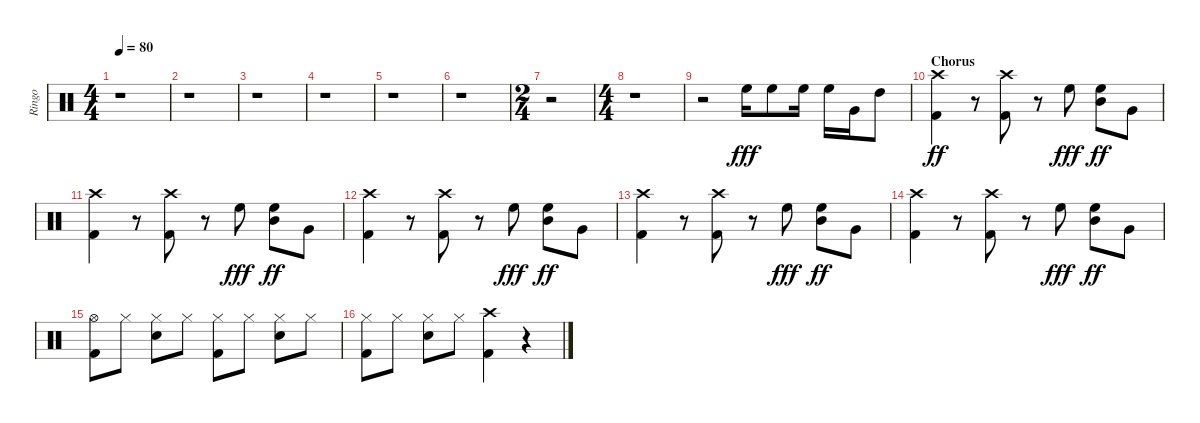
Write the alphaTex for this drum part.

\track ("Ringo" "Ringo") {instrument percussion}
\staff {score}
\articulation defaults
\ts (4 4)
\tempo 80
\clef neutral
\ks c
r.1{dy f} |
r.1 |
r.1 |
r.1 |
r.1 |
r.1 |
\ts (2 4)
r.2 |
\ts (4 4)
r.1 |
r.2 "High Floor Tom (hit)".16{dy fff volume 16 balance 14} "High Floor Tom (hit)".8 "High Floor Tom (hit)".16 "High Floor Tom (hit)".16 "Very Low Tom (hit)".16 "High Tom (hit)".8 |
\section ("" "Chorus")
("Crash high (hit)" "Kick (hit) 2").4{dy ff} r.8 ("Crash high (hit)" "Kick (hit) 2").8 r.8 "High Floor Tom (hit)".8{dy fff} ("High Floor Tom (hit)" "Mid Tom (hit)").8{dy ff} "Very Low Tom (hit)".8 |
("Crash high (hit)" "Kick (hit) 2").4 r.8 ("Crash high (hit)" "Kick (hit) 2").8 r.8 "High Floor Tom (hit)".8{dy fff} ("High Floor Tom (hit)" "Mid Tom (hit)").8{dy ff} "Very Low Tom (hit)".8 |
("Crash high (hit)" "Kick (hit) 2").4 r.8 ("Crash high (hit)" "Kick (hit) 2").8 r.8 "High Floor Tom (hit)".8{dy fff} ("High Floor Tom (hit)" "Mid Tom (hit)").8{dy ff} "Very Low Tom (hit)".8 |
("Crash high (hit)" "Kick (hit) 2").4 r.8 ("Crash high (hit)" "Kick (hit) 2").8 r.8 "High Floor Tom (hit)".8{dy fff} ("High Floor Tom (hit)" "Mid Tom (hit)").8{dy ff} "Very Low Tom (hit)".8 |
("Crash high (hit)" "Kick (hit) 2").4 r.8 ("Crash high (hit)" "Kick (hit) 2").8 r.8 "High Floor Tom (hit)".8{dy fff} ("High Floor Tom (hit)" "Mid Tom (hit)").8{dy ff} "Very Low Tom (hit)".8 |
("Hi-Hat (open)" "Kick (hit) 2").8 "Hi-Hat (closed)".8 ("Hi-Hat (closed)" "Snare (hit) 2").8 "Hi-Hat (closed)".8 ("Hi-Hat (closed)" "Kick (hit) 2").8 "Hi-Hat (closed)".8 ("Hi-Hat (closed)" "Snare (hit) 2").8 "Hi-Hat (closed)".8 |
("Hi-Hat (closed)" "Kick (hit) 2").8 "Hi-Hat (closed)".8 ("Hi-Hat (closed)" "Snare (hit) 2").8 "Hi-Hat (closed)".8 ("Crash high (hit)" "Kick (hit) 2").4 r.4
